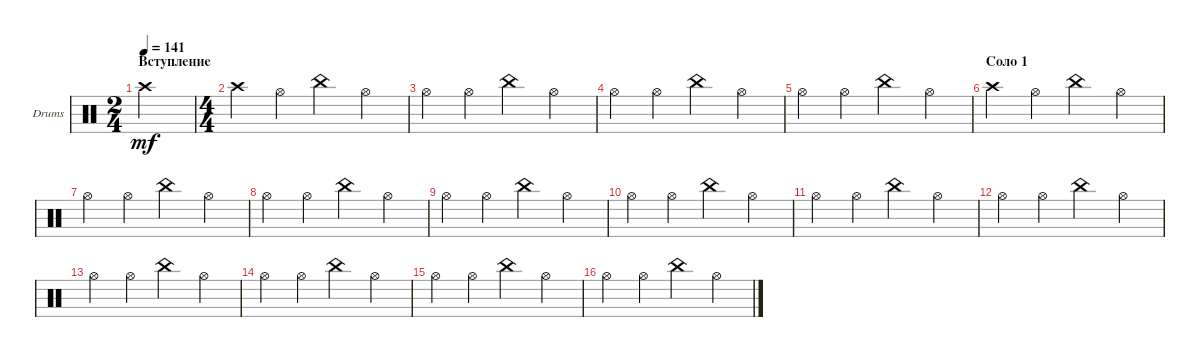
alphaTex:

\defaultSystemsLayout 4
\bracketExtendMode groupsimilarinstruments
\firstSystemTrackNameOrientation horizontal
\otherSystemsTrackNameOrientation horizontal
\track ("Cymbol" "Drums") {instrument percussion}
\staff {score}
\articulation defaults
\ts (2 4)
\section ("" "Вступление")
\tempo 141
\clef neutral
\scale
0.390805
\ks c "Crash high (hit)".2{dy mf}
|
\ts (4 4)
\scale
0.390805 "Crash high (hit)".4 "Hi-Hat (open)".4 "China (hit)".4 "Hi-Hat (open)".4 |
\scale
0.218391 "Hi-Hat (open)".4 "Hi-Hat (open)".4 "China (hit)".4 "Hi-Hat (open)".4 |
\scale
0.333333 "Hi-Hat (open)".4 "Hi-Hat (open)".4 "China (hit)".4 "Hi-Hat (open)".4 |
\scale
0.333333 "Hi-Hat (open)".4 "Hi-Hat (open)".4 "China (hit)".4 "Hi-Hat (open)".4 |
\section ("" "Соло 1")
\scale
0.333333 "Crash high (hit)".4 "Hi-Hat (open)".4 "China (hit)".4 "Hi-Hat (open)".4 |
\scale
0.333333 "Hi-Hat (open)".4 "Hi-Hat (open)".4 "China (hit)".4 "Hi-Hat (open)".4 |
\scale
0.333333 "Hi-Hat (open)".4 "Hi-Hat (open)".4 "China (hit)".4 "Hi-Hat (open)".4 |
\scale
0.333333 "Hi-Hat (open)".4 "Hi-Hat (open)".4 "China (hit)".4 "Hi-Hat (open)".4 |
\scale
0.333333 "Hi-Hat (open)".4 "Hi-Hat (open)".4 "China (hit)".4 "Hi-Hat (open)".4 |
\scale
0.333333 "Hi-Hat (open)".4 "Hi-Hat (open)".4 "China (hit)".4 "Hi-Hat (open)".4 |
\scale
0.333333 "Hi-Hat (open)".4 "Hi-Hat (open)".4 "China (hit)".4 "Hi-Hat (open)".4 |
\scale
0.333333 "Hi-Hat (open)".4 "Hi-Hat (open)".4 "China (hit)".4 "Hi-Hat (open)".4 |
\scale
0.333333 "Hi-Hat (open)".4 "Hi-Hat (open)".4 "China (hit)".4 "Hi-Hat (open)".4 |
\scale
0.333333 "Hi-Hat (open)".4 "Hi-Hat (open)".4 "China (hit)".4 "Hi-Hat (open)".4 |
\scale
0.333333 "Hi-Hat (open)".4 "Hi-Hat (open)".4 "China (hit)".4 "Hi-Hat (open)".4
